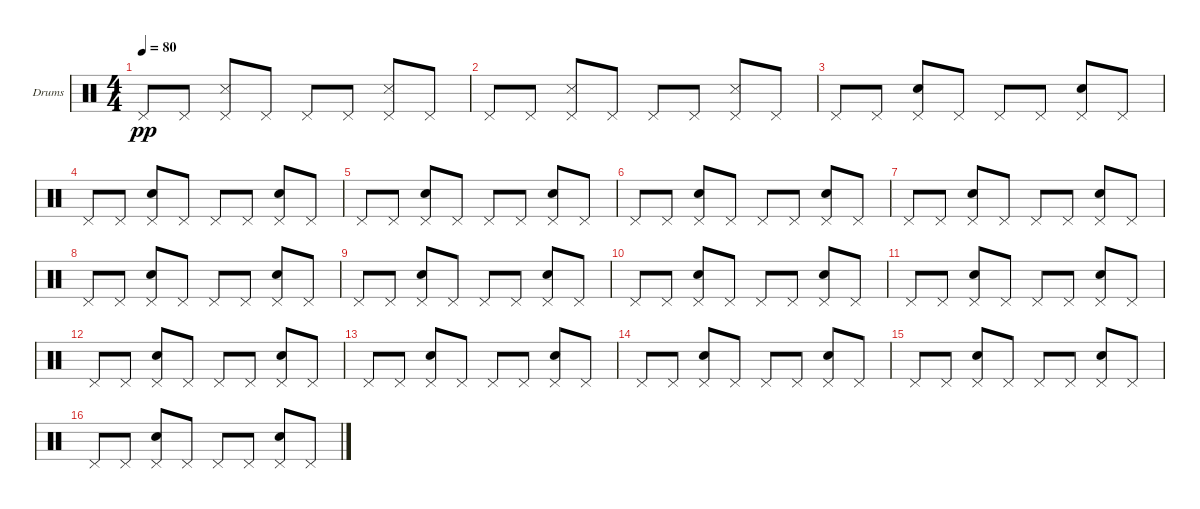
\defaultSystemsLayout 4
\bracketExtendMode groupsimilarinstruments
\firstSystemTrackNameOrientation horizontal
\otherSystemsTrackNameOrientation horizontal
\track ("Drumkit" "Drums") {instrument percussion}
\staff {score}
\articulation defaults
\ts (4 4)
\tempo 80
\clef neutral
\ks c "Pedal Hi-Hat (hit)".8{dy pp} "Pedal Hi-Hat (hit)".8
("Pedal Hi-Hat (hit)" "Snare (side stick) 3").8 "Pedal Hi-Hat (hit)".8 "Pedal Hi-Hat (hit)".8 "Pedal Hi-Hat (hit)".8 ("Pedal Hi-Hat (hit)" "Snare (side stick) 3").8 "Pedal Hi-Hat (hit)".8 |
"Pedal Hi-Hat (hit)".8 "Pedal Hi-Hat (hit)".8 ("Pedal Hi-Hat (hit)" "Snare (side stick) 3").8 "Pedal Hi-Hat (hit)".8 "Pedal Hi-Hat (hit)".8 "Pedal Hi-Hat (hit)".8 ("Pedal Hi-Hat (hit)" "Snare (side stick) 3").8 "Pedal Hi-Hat (hit)".8 |
"Pedal Hi-Hat (hit)".8 "Pedal Hi-Hat (hit)".8 ("Pedal Hi-Hat (hit)" "Snare (hit) 2").8 "Pedal Hi-Hat (hit)".8 "Pedal Hi-Hat (hit)".8 "Pedal Hi-Hat (hit)".8 ("Pedal Hi-Hat (hit)" "Snare (hit) 2").8 "Pedal Hi-Hat (hit)".8 |
"Pedal Hi-Hat (hit)".8 "Pedal Hi-Hat (hit)".8 ("Pedal Hi-Hat (hit)" "Snare (hit) 2").8 "Pedal Hi-Hat (hit)".8 "Pedal Hi-Hat (hit)".8 "Pedal Hi-Hat (hit)".8 ("Pedal Hi-Hat (hit)" "Snare (hit) 2").8 "Pedal Hi-Hat (hit)".8 |
"Pedal Hi-Hat (hit)".8 "Pedal Hi-Hat (hit)".8 ("Pedal Hi-Hat (hit)" "Snare (hit) 2").8 "Pedal Hi-Hat (hit)".8 "Pedal Hi-Hat (hit)".8 "Pedal Hi-Hat (hit)".8 ("Pedal Hi-Hat (hit)" "Snare (hit) 2").8 "Pedal Hi-Hat (hit)".8 |
"Pedal Hi-Hat (hit)".8 "Pedal Hi-Hat (hit)".8 ("Pedal Hi-Hat (hit)" "Snare (hit) 2").8 "Pedal Hi-Hat (hit)".8 "Pedal Hi-Hat (hit)".8 "Pedal Hi-Hat (hit)".8 ("Pedal Hi-Hat (hit)" "Snare (hit) 2").8 "Pedal Hi-Hat (hit)".8 |
"Pedal Hi-Hat (hit)".8 "Pedal Hi-Hat (hit)".8 ("Pedal Hi-Hat (hit)" "Snare (hit) 2").8 "Pedal Hi-Hat (hit)".8 "Pedal Hi-Hat (hit)".8 "Pedal Hi-Hat (hit)".8 ("Pedal Hi-Hat (hit)" "Snare (hit) 2").8 "Pedal Hi-Hat (hit)".8 |
"Pedal Hi-Hat (hit)".8 "Pedal Hi-Hat (hit)".8 ("Pedal Hi-Hat (hit)" "Snare (hit) 2").8 "Pedal Hi-Hat (hit)".8 "Pedal Hi-Hat (hit)".8 "Pedal Hi-Hat (hit)".8 ("Pedal Hi-Hat (hit)" "Snare (hit) 2").8 "Pedal Hi-Hat (hit)".8 |
"Pedal Hi-Hat (hit)".8 "Pedal Hi-Hat (hit)".8 ("Pedal Hi-Hat (hit)" "Snare (hit) 2").8 "Pedal Hi-Hat (hit)".8 "Pedal Hi-Hat (hit)".8 "Pedal Hi-Hat (hit)".8 ("Pedal Hi-Hat (hit)" "Snare (hit) 2").8 "Pedal Hi-Hat (hit)".8 |
"Pedal Hi-Hat (hit)".8 "Pedal Hi-Hat (hit)".8 ("Pedal Hi-Hat (hit)" "Snare (hit) 2").8 "Pedal Hi-Hat (hit)".8 "Pedal Hi-Hat (hit)".8 "Pedal Hi-Hat (hit)".8 ("Pedal Hi-Hat (hit)" "Snare (hit) 2").8 "Pedal Hi-Hat (hit)".8 |
"Pedal Hi-Hat (hit)".8 "Pedal Hi-Hat (hit)".8 ("Pedal Hi-Hat (hit)" "Snare (hit) 2").8 "Pedal Hi-Hat (hit)".8 "Pedal Hi-Hat (hit)".8 "Pedal Hi-Hat (hit)".8 ("Pedal Hi-Hat (hit)" "Snare (hit) 2").8 "Pedal Hi-Hat (hit)".8 |
"Pedal Hi-Hat (hit)".8 "Pedal Hi-Hat (hit)".8 ("Pedal Hi-Hat (hit)" "Snare (hit) 2").8 "Pedal Hi-Hat (hit)".8 "Pedal Hi-Hat (hit)".8 "Pedal Hi-Hat (hit)".8 ("Pedal Hi-Hat (hit)" "Snare (hit) 2").8 "Pedal Hi-Hat (hit)".8 |
"Pedal Hi-Hat (hit)".8 "Pedal Hi-Hat (hit)".8 ("Pedal Hi-Hat (hit)" "Snare (hit) 2").8 "Pedal Hi-Hat (hit)".8 "Pedal Hi-Hat (hit)".8 "Pedal Hi-Hat (hit)".8 ("Pedal Hi-Hat (hit)" "Snare (hit) 2").8 "Pedal Hi-Hat (hit)".8 |
"Pedal Hi-Hat (hit)".8 "Pedal Hi-Hat (hit)".8 ("Pedal Hi-Hat (hit)" "Snare (hit) 2").8 "Pedal Hi-Hat (hit)".8 "Pedal Hi-Hat (hit)".8 "Pedal Hi-Hat (hit)".8 ("Pedal Hi-Hat (hit)" "Snare (hit) 2").8 "Pedal Hi-Hat (hit)".8 |
"Pedal Hi-Hat (hit)".8 "Pedal Hi-Hat (hit)".8 ("Pedal Hi-Hat (hit)" "Snare (hit) 2").8 "Pedal Hi-Hat (hit)".8 "Pedal Hi-Hat (hit)".8 "Pedal Hi-Hat (hit)".8 ("Pedal Hi-Hat (hit)" "Snare (hit) 2").8 "Pedal Hi-Hat (hit)".8 |
"Pedal Hi-Hat (hit)".8 "Pedal Hi-Hat (hit)".8 ("Pedal Hi-Hat (hit)" "Snare (hit) 2").8 "Pedal Hi-Hat (hit)".8 "Pedal Hi-Hat (hit)".8 "Pedal Hi-Hat (hit)".8 ("Pedal Hi-Hat (hit)" "Snare (hit) 2").8 "Pedal Hi-Hat (hit)".8
